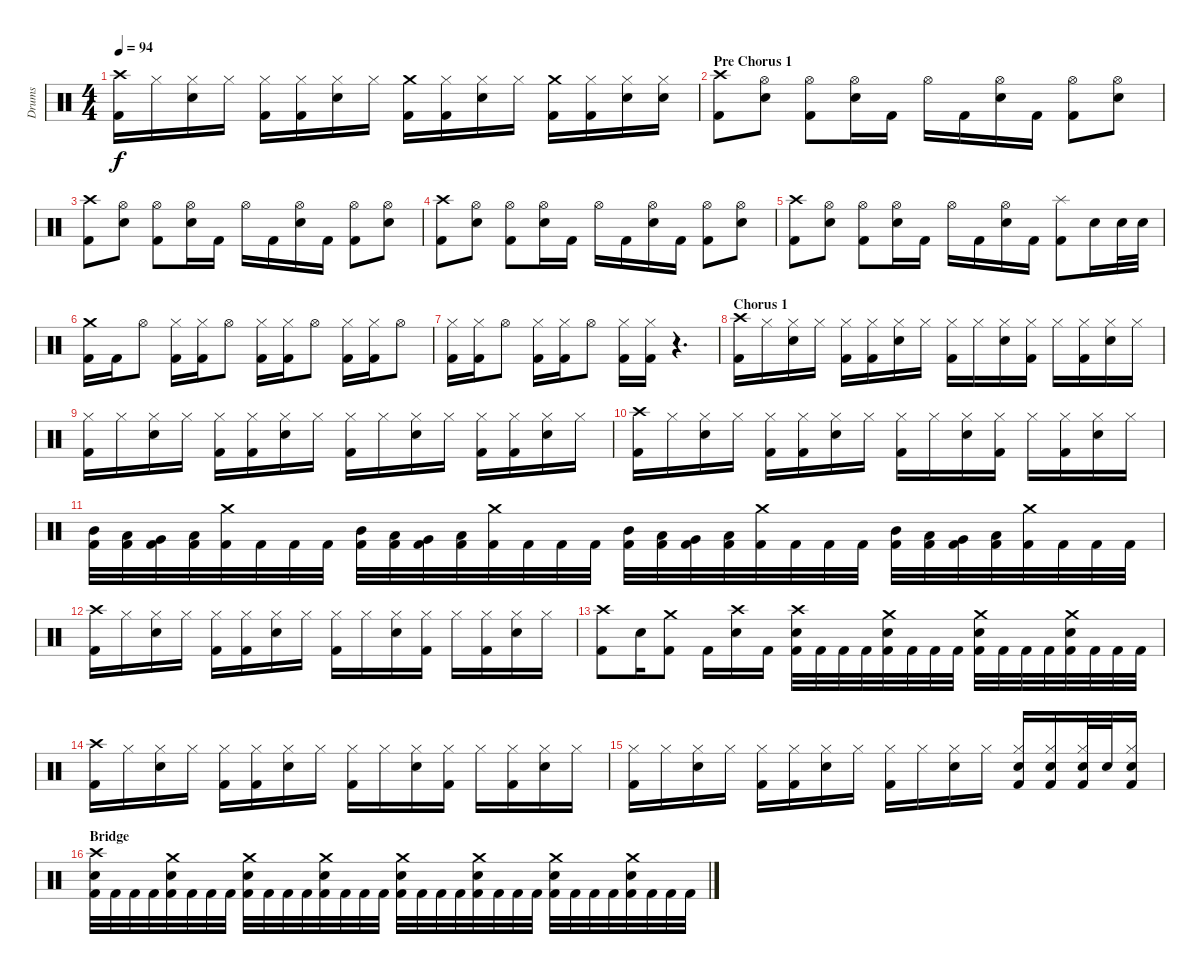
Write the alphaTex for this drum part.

\track ("Drums" "Drums") {instrument percussion}
\staff {score}
\articulation defaults
\ts (4 4)
\tempo 94
\clef neutral
\ks c
("Crash high (hit)" "Kick (hit) 2").16{dy f} "Hi-Hat (closed)".16 ("Hi-Hat (closed)" "Electric Snare (hit)").16 "Hi-Hat (closed)".16 ("Hi-Hat (closed)" "Kick (hit) 2").16 ("Hi-Hat (closed)" "Kick (hit) 2").16 ("Hi-Hat (closed)" "Electric Snare (hit)").16 "Hi-Hat (closed)".16 ("Crash medium (hit)" "Kick (hit) 2").16 ("Hi-Hat (closed)" "Kick (hit) 2").16 ("Hi-Hat (closed)" "Electric Snare (hit)").16 "Hi-Hat (closed)".16 ("Crash medium (hit)" "Kick (hit) 2").16 ("Hi-Hat (closed)" "Kick (hit) 2").16 ("Hi-Hat (closed)" "Electric Snare (hit)").16 ("Hi-Hat (closed)" "Electric Snare (hit)").16 |
\section ("" "Pre Chorus 1")
("Crash high (hit)" "Kick (hit) 2").8 ("Hi-Hat (open)" "Electric Snare (hit)").8 ("Hi-Hat (open)" "Kick (hit) 2").8 ("Hi-Hat (open)" "Electric Snare (hit)").16 "Kick (hit) 2".16 "Hi-Hat (open)".16 "Kick (hit) 2".16 ("Hi-Hat (open)" "Electric Snare (hit)").16 "Kick (hit) 2".16 ("Hi-Hat (open)" "Kick (hit) 2").8 ("Hi-Hat (open)" "Electric Snare (hit)").8 |
("Crash high (hit)" "Kick (hit) 2").8 ("Hi-Hat (open)" "Electric Snare (hit)").8 ("Hi-Hat (open)" "Kick (hit) 2").8 ("Hi-Hat (open)" "Electric Snare (hit)").16 "Kick (hit) 2".16 "Hi-Hat (open)".16 "Kick (hit) 2".16 ("Hi-Hat (open)" "Electric Snare (hit)").16 "Kick (hit) 2".16 ("Hi-Hat (open)" "Kick (hit) 2").8 ("Hi-Hat (open)" "Electric Snare (hit)").8 |
("Crash high (hit)" "Kick (hit) 2").8 ("Hi-Hat (open)" "Electric Snare (hit)").8 ("Hi-Hat (open)" "Kick (hit) 2").8 ("Hi-Hat (open)" "Electric Snare (hit)").16 "Kick (hit) 2".16 "Hi-Hat (open)".16 "Kick (hit) 2".16 ("Hi-Hat (open)" "Electric Snare (hit)").16 "Kick (hit) 2".16 ("Hi-Hat (open)" "Kick (hit) 2").8 ("Hi-Hat (open)" "Electric Snare (hit)").8 |
("Crash high (hit)" "Kick (hit) 2").8 ("Hi-Hat (open)" "Electric Snare (hit)").8 ("Hi-Hat (open)" "Kick (hit) 2").8 ("Hi-Hat (open)" "Electric Snare (hit)").16 "Kick (hit) 2".16 "Hi-Hat (open)".16 "Kick (hit) 2".16 ("Hi-Hat (open)" "Electric Snare (hit)").16 "Kick (hit) 2".16 ("Splash (hit)" "Kick (hit) 2").8 "Electric Snare (hit)".16 "Electric Snare (hit)".32 "Electric Snare (hit)".32 |
("Crash medium (hit)" "Kick (hit) 2").16 "Kick (hit) 2".16 "Hi-Hat (open)".8 ("Hi-Hat (closed)" "Kick (hit) 2").16 ("Hi-Hat (closed)" "Kick (hit) 2").16 "Hi-Hat (open)".8 ("Hi-Hat (closed)" "Kick (hit) 2").16 ("Hi-Hat (closed)" "Kick (hit) 2").16 "Hi-Hat (open)".8 ("Hi-Hat (closed)" "Kick (hit) 2").16 ("Hi-Hat (closed)" "Kick (hit) 2").16 "Hi-Hat (open)".8 |
("Hi-Hat (closed)" "Kick (hit) 2").16 ("Hi-Hat (closed)" "Kick (hit) 2").16 "Hi-Hat (open)".8 ("Hi-Hat (closed)" "Kick (hit) 2").16 ("Hi-Hat (closed)" "Kick (hit) 2").16 "Hi-Hat (open)".8 ("Hi-Hat (closed)" "Kick (hit) 2").16 ("Hi-Hat (closed)" "Kick (hit) 2").16 r.4{d} |
\section ("" "Chorus 1")
("Crash high (hit)" "Kick (hit) 2").16 "Hi-Hat (closed)".16 ("Hi-Hat (closed)" "Electric Snare (hit)").16 "Hi-Hat (closed)".16 ("Hi-Hat (closed)" "Kick (hit) 2").16 ("Hi-Hat (closed)" "Kick (hit) 2").16 ("Hi-Hat (closed)" "Electric Snare (hit)").16 "Hi-Hat (closed)".16 ("Hi-Hat (closed)" "Kick (hit) 2").16 "Hi-Hat (closed)".16 ("Hi-Hat (closed)" "Electric Snare (hit)").16 ("Hi-Hat (closed)" "Kick (hit) 2").16 "Hi-Hat (closed)".16 ("Hi-Hat (closed)" "Kick (hit) 2").16 ("Hi-Hat (closed)" "Electric Snare (hit)").16 "Hi-Hat (closed)".16 |
("Hi-Hat (closed)" "Kick (hit) 2").16 "Hi-Hat (closed)".16 ("Hi-Hat (closed)" "Electric Snare (hit)").16 "Hi-Hat (closed)".16 ("Hi-Hat (closed)" "Kick (hit) 2").16 ("Hi-Hat (closed)" "Kick (hit) 2").16 ("Hi-Hat (closed)" "Electric Snare (hit)").16 "Hi-Hat (closed)".16 ("Hi-Hat (closed)" "Kick (hit) 2").16 "Hi-Hat (closed)".16 ("Hi-Hat (closed)" "Electric Snare (hit)").16 "Hi-Hat (closed)".16 ("Hi-Hat (closed)" "Kick (hit) 2").16 ("Hi-Hat (closed)" "Kick (hit) 2").16 ("Hi-Hat (closed)" "Electric Snare (hit)").16 "Hi-Hat (closed)".16 |
("Crash high (hit)" "Kick (hit) 2").16 "Hi-Hat (closed)".16 ("Hi-Hat (closed)" "Electric Snare (hit)").16 "Hi-Hat (closed)".16 ("Hi-Hat (closed)" "Kick (hit) 2").16 ("Hi-Hat (closed)" "Kick (hit) 2").16 ("Hi-Hat (closed)" "Electric Snare (hit)").16 "Hi-Hat (closed)".16 ("Hi-Hat (closed)" "Kick (hit) 2").16 "Hi-Hat (closed)".16 ("Hi-Hat (closed)" "Electric Snare (hit)").16 ("Hi-Hat (closed)" "Kick (hit) 2").16 "Hi-Hat (closed)".16 ("Hi-Hat (closed)" "Kick (hit) 2").16 ("Hi-Hat (closed)" "Electric Snare (hit)").16 "Hi-Hat (closed)".16 |
("Mid Tom (hit)" "Kick (hit) 2").32 ("Low Tom (hit)" "Kick (hit) 2").32 ("Very Low Tom (hit)" "Kick (hit) 2").32 ("Low Floor Tom (hit)" "Kick (hit) 2").32 ("Crash medium (hit)" "Kick (hit) 2").32 "Kick (hit) 2".32 "Kick (hit) 2".32 "Kick (hit) 2".32 ("Mid Tom (hit)" "Kick (hit) 2").32 ("Low Tom (hit)" "Kick (hit) 2").32 ("Very Low Tom (hit)" "Kick (hit) 2").32 ("Low Floor Tom (hit)" "Kick (hit) 2").32 ("Crash medium (hit)" "Kick (hit) 2").32 "Kick (hit) 2".32 "Kick (hit) 2".32 "Kick (hit) 2".32 ("Mid Tom (hit)" "Kick (hit) 2").32 ("Low Tom (hit)" "Kick (hit) 2").32 ("Very Low Tom (hit)" "Kick (hit) 2").32 ("Low Floor Tom (hit)" "Kick (hit) 2").32 ("Crash medium (hit)" "Kick (hit) 2").32 "Kick (hit) 2".32 "Kick (hit) 2".32 "Kick (hit) 2".32 ("Mid Tom (hit)" "Kick (hit) 2").32 ("Low Tom (hit)" "Kick (hit) 2").32 ("Very Low Tom (hit)" "Kick (hit) 2").32 ("Low Floor Tom (hit)" "Kick (hit) 2").32 ("Crash medium (hit)" "Kick (hit) 2").32 "Kick (hit) 2".32 "Kick (hit) 2".32 "Kick (hit) 2".32 |
("Crash high (hit)" "Kick (hit) 2").16 "Hi-Hat (closed)".16 ("Hi-Hat (closed)" "Electric Snare (hit)").16 "Hi-Hat (closed)".16 ("Hi-Hat (closed)" "Kick (hit) 2").16 ("Hi-Hat (closed)" "Kick (hit) 2").16 ("Hi-Hat (closed)" "Electric Snare (hit)").16 "Hi-Hat (closed)".16 ("Hi-Hat (closed)" "Kick (hit) 2").16 "Hi-Hat (closed)".16 ("Hi-Hat (closed)" "Electric Snare (hit)").16 ("Hi-Hat (closed)" "Kick (hit) 2").16 "Hi-Hat (closed)".16 ("Hi-Hat (closed)" "Kick (hit) 2").16 ("Hi-Hat (closed)" "Electric Snare (hit)").16 "Hi-Hat (closed)".16 |
("Crash high (hit)" "Kick (hit) 2").8 "Electric Snare (hit)".16 ("Crash medium (hit)" "Kick (hit) 2").8 "Kick (hit) 2".16 ("Crash high (hit)" "Electric Snare (hit)").16 "Kick (hit) 2".16 ("Crash high (hit)" "Electric Snare (hit)" "Kick (hit) 2").32 "Kick (hit) 2".32 "Kick (hit) 2".32 "Kick (hit) 2".32 ("Crash medium (hit)" "Electric Snare (hit)" "Kick (hit) 2").32 "Kick (hit) 2".32 "Kick (hit) 2".32 "Kick (hit) 2".32 ("Crash medium (hit)" "Electric Snare (hit)" "Kick (hit) 2").32 "Kick (hit) 2".32 "Kick (hit) 2".32 "Kick (hit) 2".32 ("Crash medium (hit)" "Electric Snare (hit)" "Kick (hit) 2").32 "Kick (hit) 2".32 "Kick (hit) 2".32 "Kick (hit) 2".32 |
("Crash high (hit)" "Kick (hit) 2").16 "Hi-Hat (closed)".16 ("Hi-Hat (closed)" "Electric Snare (hit)").16 "Hi-Hat (closed)".16 ("Hi-Hat (closed)" "Kick (hit) 2").16 ("Hi-Hat (closed)" "Kick (hit) 2").16 ("Hi-Hat (closed)" "Electric Snare (hit)").16 "Hi-Hat (closed)".16 ("Hi-Hat (closed)" "Kick (hit) 2").16 "Hi-Hat (closed)".16 ("Hi-Hat (closed)" "Electric Snare (hit)").16 ("Hi-Hat (closed)" "Kick (hit) 2").16 "Hi-Hat (closed)".16 ("Hi-Hat (closed)" "Kick (hit) 2").16 ("Hi-Hat (closed)" "Electric Snare (hit)").16 "Hi-Hat (closed)".16 |
("Hi-Hat (closed)" "Kick (hit) 2").16 "Hi-Hat (closed)".16 ("Hi-Hat (closed)" "Electric Snare (hit)").16 "Hi-Hat (closed)".16 ("Hi-Hat (closed)" "Kick (hit) 2").16 ("Hi-Hat (closed)" "Kick (hit) 2").16 ("Hi-Hat (closed)" "Electric Snare (hit)").16 "Hi-Hat (closed)".16 ("Hi-Hat (closed)" "Kick (hit) 2").16 "Hi-Hat (closed)".16 ("Hi-Hat (closed)" "Electric Snare (hit)").16 "Hi-Hat (closed)".16 ("Hi-Hat (closed)" "Electric Snare (hit)" "Kick (hit) 2").16 ("Hi-Hat (closed)" "Electric Snare (hit)" "Kick (hit) 2").16 ("Hi-Hat (closed)" "Electric Snare (hit)" "Kick (hit) 2").32 "Electric Snare (hit)".32 ("Hi-Hat (closed)" "Electric Snare (hit)" "Kick (hit) 2").16 |
\section ("" "Bridge")
("Crash high (hit)" "Electric Snare (hit)" "Kick (hit) 2").32 "Kick (hit) 2".32 "Kick (hit) 2".32 "Kick (hit) 2".32 ("Crash medium (hit)" "Electric Snare (hit)" "Kick (hit) 2").32 "Kick (hit) 2".32 "Kick (hit) 2".32 "Kick (hit) 2".32 ("Crash medium (hit)" "Electric Snare (hit)" "Kick (hit) 2").32 "Kick (hit) 2".32 "Kick (hit) 2".32 "Kick (hit) 2".32 ("Crash medium (hit)" "Electric Snare (hit)" "Kick (hit) 2").32 "Kick (hit) 2".32 "Kick (hit) 2".32 "Kick (hit) 2".32 ("Crash medium (hit)" "Electric Snare (hit)" "Kick (hit) 2").32 "Kick (hit) 2".32 "Kick (hit) 2".32 "Kick (hit) 2".32 ("Crash medium (hit)" "Electric Snare (hit)" "Kick (hit) 2").32 "Kick (hit) 2".32 "Kick (hit) 2".32 "Kick (hit) 2".32 ("Crash medium (hit)" "Electric Snare (hit)" "Kick (hit) 2").32 "Kick (hit) 2".32 "Kick (hit) 2".32 "Kick (hit) 2".32 ("Crash medium (hit)" "Electric Snare (hit)" "Kick (hit) 2").32 "Kick (hit) 2".32 "Kick (hit) 2".32 "Kick (hit) 2".32
